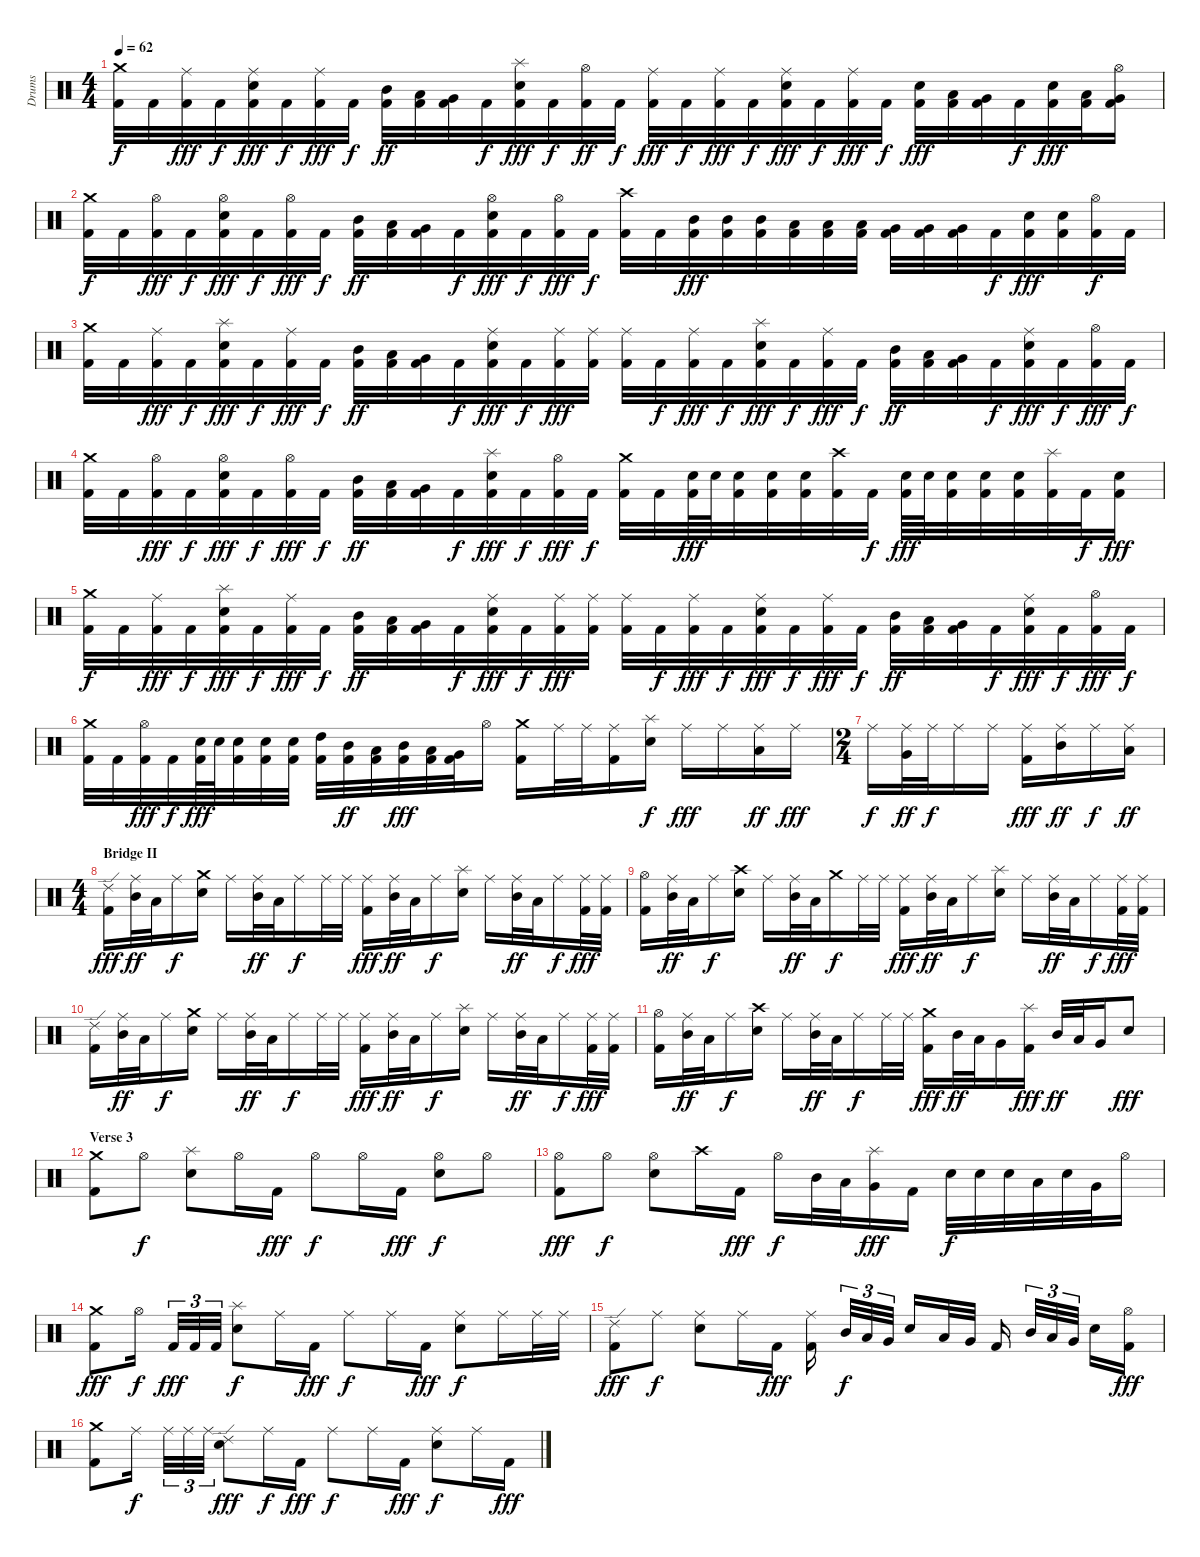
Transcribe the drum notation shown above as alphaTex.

\track ("Drums" "Drums") {instrument percussion}
\staff {score}
\articulation defaults
\ts (4 4)
\tempo 62
\clef neutral
\ks c
("Crash medium (hit)" "Kick (hit) 2").32{dy f} "Kick (hit) 2".32 ("Ride (middle)" "Kick (hit) 2").32{dy fff} "Kick (hit) 2".32{dy f} ("Ride (middle)" "Electric Snare (hit)" "Kick (hit) 2").32{dy fff} "Kick (hit) 2".32{dy f} ("Ride (middle)" "Kick (hit) 2").32{dy fff} "Kick (hit) 2".32{dy f} ("Mid Tom (hit)" "Kick (hit) 2").32{dy ff} ("Low Tom (hit)" "Kick (hit) 2").32 ("Very Low Tom (hit)" "Kick (hit) 2").32 "Kick (hit) 2".32{dy f} ("Splash (hit)" "Electric Snare (hit)" "Kick (hit) 2").32{dy fff} "Kick (hit) 2".32{dy f} ("Hi-Hat (open)" "Kick (hit) 2").32{dy ff} "Kick (hit) 2".32{dy f} ("Ride (middle)" "Kick (hit) 2").32{dy fff} "Kick (hit) 2".32{dy f} ("Ride (middle)" "Kick (hit) 2").32{dy fff} "Kick (hit) 2".32{dy f} ("Ride (middle)" "Electric Snare (hit)" "Kick (hit) 2").32{dy fff} "Kick (hit) 2".32{dy f} ("Ride (middle)" "Kick (hit) 2").32{dy fff} "Kick (hit) 2".32{dy f} ("Electric Snare (hit)" "Kick (hit) 2").32{dy fff} ("Low Tom (hit)" "Kick (hit) 2").32 ("Very Low Tom (hit)" "Kick (hit) 2").32 "Kick (hit) 2".32{dy f} ("Electric Snare (hit)" "Kick (hit) 2").32{dy fff} ("Low Tom (hit)" "Kick (hit) 2").32 ("Hi-Hat (open)" "Very Low Tom (hit)" "Kick (hit) 2").16 |
("Crash medium (hit)" "Kick (hit) 2").32{dy f} "Kick (hit) 2".32 ("Hi-Hat (open)" "Kick (hit) 2").32{dy fff} "Kick (hit) 2".32{dy f} ("Hi-Hat (open)" "Electric Snare (hit)" "Kick (hit) 2").32{dy fff} "Kick (hit) 2".32{dy f} ("Hi-Hat (open)" "Kick (hit) 2").32{dy fff} "Kick (hit) 2".32{dy f} ("Mid Tom (hit)" "Kick (hit) 2").32{dy ff} ("Low Tom (hit)" "Kick (hit) 2").32 ("Very Low Tom (hit)" "Kick (hit) 2").32 "Kick (hit) 2".32{dy f} ("Hi-Hat (open)" "Electric Snare (hit)" "Kick (hit) 2").32{dy fff} "Kick (hit) 2".32{dy f} ("Hi-Hat (open)" "Kick (hit) 2").32{dy fff} "Kick (hit) 2".32{dy f} ("Crash high (hit)" "Kick (hit) 2").32 "Kick (hit) 2".32 ("Mid Tom (hit)" "Kick (hit) 2").32{dy fff} ("Mid Tom (hit)" "Kick (hit) 2").32 ("Mid Tom (hit)" "Kick (hit) 2").32 ("Low Tom (hit)" "Kick (hit) 2").32 ("Low Tom (hit)" "Kick (hit) 2").32 ("Low Tom (hit)" "Kick (hit) 2").32 ("Very Low Tom (hit)" "Kick (hit) 2").32 ("Very Low Tom (hit)" "Kick (hit) 2").32 ("Very Low Tom (hit)" "Kick (hit) 2").32 "Kick (hit) 2".32{dy f} ("Electric Snare (hit)" "Kick (hit) 2").32{dy fff} ("Electric Snare (hit)" "Kick (hit) 2").32 ("Hi-Hat (open)" "Kick (hit) 2").32{dy f} "Kick (hit) 2".32 |
("Crash medium (hit)" "Kick (hit) 2").32 "Kick (hit) 2".32 ("Ride (middle)" "Kick (hit) 2").32{dy fff} "Kick (hit) 2".32{dy f} ("Splash (hit)" "Electric Snare (hit)" "Kick (hit) 2").32{dy fff} "Kick (hit) 2".32{dy f} ("Ride (middle)" "Kick (hit) 2").32{dy fff} "Kick (hit) 2".32{dy f} ("Mid Tom (hit)" "Kick (hit) 2").32{dy ff} ("Low Tom (hit)" "Kick (hit) 2").32 ("Very Low Tom (hit)" "Kick (hit) 2").32 "Kick (hit) 2".32{dy f} ("Ride (middle)" "Electric Snare (hit)" "Kick (hit) 2").32{dy fff} "Kick (hit) 2".32{dy f} ("Ride (middle)" "Kick (hit) 2").32{dy fff} ("Ride (middle)" "Kick (hit) 2").32 ("Ride (middle)" "Kick (hit) 2").32 "Kick (hit) 2".32{dy f} ("Ride (middle)" "Kick (hit) 2").32{dy fff} "Kick (hit) 2".32{dy f} ("Splash (hit)" "Electric Snare (hit)" "Kick (hit) 2").32{dy fff} "Kick (hit) 2".32{dy f} ("Ride (middle)" "Kick (hit) 2").32{dy fff} "Kick (hit) 2".32{dy f} ("Mid Tom (hit)" "Kick (hit) 2").32{dy ff} ("Low Tom (hit)" "Kick (hit) 2").32 ("Very Low Tom (hit)" "Kick (hit) 2").32 "Kick (hit) 2".32{dy f} ("Ride (middle)" "Electric Snare (hit)" "Kick (hit) 2").32{dy fff} "Kick (hit) 2".32{dy f} ("Hi-Hat (open)" "Kick (hit) 2").32{dy fff} "Kick (hit) 2".32{dy f} |
("Crash medium (hit)" "Kick (hit) 2").32 "Kick (hit) 2".32 ("Hi-Hat (open)" "Kick (hit) 2").32{dy fff} "Kick (hit) 2".32{dy f} ("Hi-Hat (open)" "Electric Snare (hit)" "Kick (hit) 2").32{dy fff} "Kick (hit) 2".32{dy f} ("Hi-Hat (open)" "Kick (hit) 2").32{dy fff} "Kick (hit) 2".32{dy f} ("Mid Tom (hit)" "Kick (hit) 2").32{dy ff} ("Low Tom (hit)" "Kick (hit) 2").32 ("Very Low Tom (hit)" "Kick (hit) 2").32 "Kick (hit) 2".32{dy f} ("Splash (hit)" "Electric Snare (hit)" "Kick (hit) 2").32{dy fff} "Kick (hit) 2".32{dy f} ("Hi-Hat (open)" "Kick (hit) 2").32{dy fff} "Kick (hit) 2".32{dy f} ("Crash medium (hit)" "Kick (hit) 2").32 "Kick (hit) 2".32 ("Electric Snare (hit)" "Kick (hit) 2").64{dy fff} "Electric Snare (hit)".64 ("Electric Snare (hit)" "Kick (hit) 2").32 ("Electric Snare (hit)" "Kick (hit) 2").32 ("Electric Snare (hit)" "Kick (hit) 2").32 ("Crash high (hit)" "Kick (hit) 2").32 "Kick (hit) 2".32{dy f} ("Electric Snare (hit)" "Kick (hit) 2").64{dy fff} "Electric Snare (hit)".64 ("Electric Snare (hit)" "Kick (hit) 2").32 ("Electric Snare (hit)" "Kick (hit) 2").32 ("Electric Snare (hit)" "Kick (hit) 2").32 ("Splash (hit)" "Kick (hit) 2").32 "Kick (hit) 2".32{dy f} ("Electric Snare (hit)" "Kick (hit) 2").16{dy fff} |
("Crash medium (hit)" "Kick (hit) 2").32{dy f} "Kick (hit) 2".32 ("Ride (middle)" "Kick (hit) 2").32{dy fff} "Kick (hit) 2".32{dy f} ("Splash (hit)" "Electric Snare (hit)" "Kick (hit) 2").32{dy fff} "Kick (hit) 2".32{dy f} ("Ride (middle)" "Kick (hit) 2").32{dy fff} "Kick (hit) 2".32{dy f} ("Mid Tom (hit)" "Kick (hit) 2").32{dy ff} ("Low Tom (hit)" "Kick (hit) 2").32 ("Very Low Tom (hit)" "Kick (hit) 2").32 "Kick (hit) 2".32{dy f} ("Ride (middle)" "Electric Snare (hit)" "Kick (hit) 2").32{dy fff} "Kick (hit) 2".32{dy f} ("Ride (middle)" "Kick (hit) 2").32{dy fff} ("Ride (middle)" "Kick (hit) 2").32 ("Ride (middle)" "Kick (hit) 2").32 "Kick (hit) 2".32{dy f} ("Ride (middle)" "Kick (hit) 2").32{dy fff} "Kick (hit) 2".32{dy f} ("Ride (middle)" "Electric Snare (hit)" "Kick (hit) 2").32{dy fff} "Kick (hit) 2".32{dy f} ("Ride (middle)" "Kick (hit) 2").32{dy fff} "Kick (hit) 2".32{dy f} ("Mid Tom (hit)" "Kick (hit) 2").32{dy ff} ("Low Tom (hit)" "Kick (hit) 2").32 ("Very Low Tom (hit)" "Kick (hit) 2").32 "Kick (hit) 2".32{dy f} ("Ride (middle)" "Electric Snare (hit)" "Kick (hit) 2").32{dy fff} "Kick (hit) 2".32{dy f} ("Hi-Hat (open)" "Kick (hit) 2").32{dy fff} "Kick (hit) 2".32{dy f} |
("Crash medium (hit)" "Kick (hit) 2").32 "Kick (hit) 2".32 ("Hi-Hat (open)" "Kick (hit) 2").32{dy fff} "Kick (hit) 2".32{dy f} ("Electric Snare (hit)" "Kick (hit) 2").64{dy fff} "Electric Snare (hit)".64 ("Electric Snare (hit)" "Kick (hit) 2").32 ("Electric Snare (hit)" "Kick (hit) 2").32 ("Electric Snare (hit)" "Kick (hit) 2").32 ("High Tom (hit)" "Kick (hit) 2").32 ("Mid Tom (hit)" "Kick (hit) 2").32{dy ff} ("Low Tom (hit)" "Kick (hit) 2").32 ("Mid Tom (hit)" "Kick (hit) 2").32{dy fff} ("Low Tom (hit)" "Kick (hit) 2").32 ("Very Low Tom (hit)" "Kick (hit) 2").32 "Hi-Hat (open)".16 ("Crash medium (hit)" "Kick (hit) 2").16 "Ride (middle)".32 "Ride (middle)".32 ("Ride (middle)" "Kick (hit) 2").16 ("Splash (hit)" "Electric Snare (hit)").16{dy f} "Ride (middle)".16{dy fff} "Ride (middle)".16 ("Ride (middle)" "Low Tom (hit)").16{dy ff} "Ride (middle)".16{dy fff} |
\ts (2 4)
"Ride (middle)".16{dy f} ("Ride (middle)" "Very Low Tom (hit)").32{dy ff} "Ride (middle)".32{dy f} "Ride (middle)".16 "Ride (middle)".16 ("Ride (middle)" "Kick (hit) 2").16{dy fff} ("Ride (middle)" "Mid Tom (hit)").16{dy ff} "Ride (middle)".16{dy f} ("Ride (middle)" "Low Tom (hit)").16{dy ff} |
\ts (4 4)
\section ("" "Bridge II")
("Ride (edge) 2" "Kick (hit) 2").16{dy fff} ("Ride (middle)" "Mid Tom (hit)").32{dy ff} "Low Tom (hit)".32 "Ride (middle)".16{dy f} ("Crash medium (hit)" "Electric Snare (hit)").16 "Ride (middle)".16 ("Ride (middle)" "Mid Tom (hit)").32{dy ff} "Low Tom (hit)".32 "Ride (middle)".16{dy f} "Ride (middle)".32 "Ride (middle)".32 ("Ride (middle)" "Kick (hit) 2").16{dy fff} ("Ride (middle)" "Mid Tom (hit)").32{dy ff} "Low Tom (hit)".32 "Ride (middle)".16{dy f} ("Splash (hit)" "Electric Snare (hit)").16 "Ride (middle)".16 ("Ride (middle)" "Mid Tom (hit)").32{dy ff} "Low Tom (hit)".32 "Ride (middle)".16{dy f} ("Ride (middle)" "Kick (hit) 2").32{dy fff} ("Ride (middle)" "Kick (hit) 2").32 |
("Hi-Hat (open)" "Kick (hit) 2").16 ("Ride (middle)" "Mid Tom (hit)").32{dy ff} "Low Tom (hit)".32 "Ride (middle)".16{dy f} ("Crash high (hit)" "Electric Snare (hit)").16 "Ride (middle)".16 ("Ride (middle)" "Mid Tom (hit)").32{dy ff} "Low Tom (hit)".32 "Crash medium (hit)".16{dy f} "Ride (middle)".32 "Ride (middle)".32 ("Ride (middle)" "Kick (hit) 2").16{dy fff} ("Ride (middle)" "Mid Tom (hit)").32{dy ff} "Low Tom (hit)".32 "Ride (middle)".16{dy f} ("Splash (hit)" "Electric Snare (hit)").16 "Ride (middle)".16 ("Ride (middle)" "Mid Tom (hit)").32{dy ff} "Low Tom (hit)".32 "Ride (middle)".16{dy f} ("Ride (middle)" "Kick (hit) 2").32{dy fff} ("Ride (middle)" "Kick (hit) 2").32 |
("Ride (edge) 2" "Kick (hit) 2").16 ("Ride (middle)" "Mid Tom (hit)").32{dy ff} "Low Tom (hit)".32 "Ride (middle)".16{dy f} ("Crash medium (hit)" "Electric Snare (hit)").16 "Ride (middle)".16 ("Ride (middle)" "Mid Tom (hit)").32{dy ff} "Low Tom (hit)".32 "Ride (middle)".16{dy f} "Ride (middle)".32 "Ride (middle)".32 ("Ride (middle)" "Kick (hit) 2").16{dy fff} ("Ride (middle)" "Mid Tom (hit)").32{dy ff} "Low Tom (hit)".32 "Ride (middle)".16{dy f} ("Splash (hit)" "Electric Snare (hit)").16 "Ride (middle)".16 ("Ride (middle)" "Mid Tom (hit)").32{dy ff} "Low Tom (hit)".32 "Ride (middle)".16{dy f} ("Ride (middle)" "Kick (hit) 2").32{dy fff} ("Ride (middle)" "Kick (hit) 2").32 |
("Hi-Hat (open)" "Kick (hit) 2").16 ("Ride (middle)" "Mid Tom (hit)").32{dy ff} "Low Tom (hit)".32 "Ride (middle)".16{dy f} ("Crash high (hit)" "Electric Snare (hit)").16 "Ride (middle)".16 ("Ride (middle)" "Mid Tom (hit)").32{dy ff} "Low Tom (hit)".32 "Ride (middle)".16{dy f} "Ride (middle)".32 "Ride (middle)".32 ("Crash medium (hit)" "Kick (hit) 2").16{dy fff} "Mid Tom (hit)".32{dy ff} "Low Tom (hit)".32 "Very Low Tom (hit)".16 ("Splash (hit)" "Kick (hit) 2").16{dy fff} "Mid Tom (hit)".32{dy ff} "Low Tom (hit)".32 "Very Low Tom (hit)".16 "Electric Snare (hit)".8{dy fff} |
\section ("" "Verse 3")
("Crash medium (hit)" "Kick (hit) 2").8 "Hi-Hat (open)".8{dy f} ("Splash (hit)" "Electric Snare (hit)").8 "Hi-Hat (open)".16 "Kick (hit) 2".16{dy fff} "Hi-Hat (open)".8{dy f} "Hi-Hat (open)".16 "Kick (hit) 2".16{dy fff} ("Hi-Hat (open)" "Electric Snare (hit)").8{dy f} "Hi-Hat (open)".8 |
("Hi-Hat (open)" "Kick (hit) 2").8{dy fff} "Hi-Hat (open)".8{dy f} ("Hi-Hat (open)" "Electric Snare (hit)").8 "Crash high (hit)".16 "Kick (hit) 2".16{dy fff} "Hi-Hat (open)".16{dy f} "Mid Tom (hit)".32 "Low Tom (hit)".32 ("Splash (hit)" "Very Low Tom (hit)").16{dy fff} "Kick (hit) 2".16 "Electric Snare (hit)".32{dy f} "Electric Snare (hit)".32 "Electric Snare (hit)".32 "Low Tom (hit)".32 "Electric Snare (hit)".32 "Very Low Tom (hit)".32 "Hi-Hat (open)".16 |
("Crash medium (hit)" "Kick (hit) 2").8{dy fff} "Hi-Hat (open)".16{dy f} "Kick (hit) 2".32{tu (3 2) dy fff} "Kick (hit) 2".32{tu (3 2)} "Kick (hit) 2".32{tu (3 2)} ("Splash (hit)" "Electric Snare (hit)").8{dy f} "Ride (middle)".16 "Kick (hit) 2".16{dy fff} "Ride (middle)".8{dy f} "Ride (middle)".16 "Kick (hit) 2".16{dy fff} ("Ride (middle)" "Electric Snare (hit)").8{dy f} "Ride (middle)".16 "Ride (middle)".32 "Ride (middle)".32 |
("Ride (edge) 2" "Kick (hit) 2").8{dy fff} "Ride (middle)".8{dy f} ("Ride (middle)" "Electric Snare (hit)").8 "Ride (middle)".16 "Kick (hit) 2".16{dy fff} ("Ride (middle)" "Kick (hit) 2").16 "Mid Tom (hit)".32{tu (3 2) dy f} "Low Tom (hit)".32{tu (3 2)} "Very Low Tom (hit)".32{tu (3 2)} "Electric Snare (hit)".16 "Low Tom (hit)".32 "Very Low Tom (hit)".32 "Kick (hit) 2".16 "Mid Tom (hit)".32{tu (3 2)} "Low Tom (hit)".32{tu (3 2)} "Very Low Tom (hit)".32{tu (3 2)} "Electric Snare (hit)".16 ("Hi-Hat (open)" "Kick (hit) 2").16{dy fff} |
("Crash medium (hit)" "Kick (hit) 2").8 "Ride (middle)".16{dy f} "Ride (middle)".32{tu (3 2)} "Ride (middle)".32{tu (3 2)} "Ride (middle)".32{tu (3 2)} ("Ride (edge) 2" "Electric Snare (hit)").8{dy fff} "Ride (middle)".16{dy f} "Kick (hit) 2".16{dy fff} "Ride (middle)".8{dy f} "Ride (middle)".16 "Kick (hit) 2".16{dy fff} ("Ride (middle)" "Electric Snare (hit)").8{dy f} "Ride (middle)".16 "Kick (hit) 2".16{dy fff}
